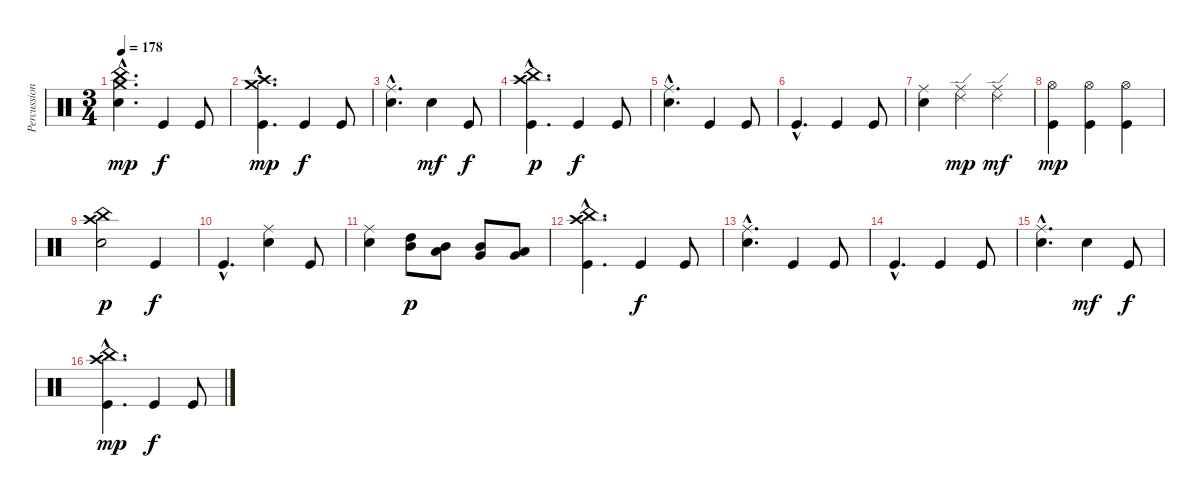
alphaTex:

\track ("Percussions" "Percussion") {instrument percussion}
\staff {score}
\articulation defaults
\ts (3 4)
\tempo 178
\clef neutral
\ks c
("Electric Snare (hit)"{hac} "China (hit)"{hac} "Crash medium (hit)"{hac}).4{d dy mp} "Kick (hit)".4{dy f} "Kick (hit)".8 |
("Kick (hit)"{hac} "Crash medium (hit)"{hac} "Crash high (hit)"{hac}).4{d dy mp} "Kick (hit)".4{dy f} "Kick (hit)".8 |
("Electric Snare (hit)"{hac} "Ride (middle)"{hac}).4{d} "Electric Snare (hit)".4{dy mf} "Kick (hit)".8{dy f} |
("Kick (hit)"{hac} "Crash high (hit)"{hac} "China (hit)"{hac}).4{d dy p} "Kick (hit)".4{dy f} "Kick (hit)".8 |
("Electric Snare (hit)"{hac} "Ride (middle)"{hac}).4{d} "Kick (hit)".4 "Kick (hit)".8 |
"Kick (hit)"{hac}.4{d} "Kick (hit)".4 "Kick (hit)".8 |
("Electric Snare (hit)" "Ride (middle)").4 ("Ride (middle)" "Ride (edge) 2").4{dy mp} ("Ride (middle)" "Ride (edge) 2").4{dy mf} |
("Kick (hit)" "Hi-Hat (open)").4{dy mp} ("Kick (hit)" "Hi-Hat (open)").4 ("Kick (hit)" "Hi-Hat (open)").4 |
("Electric Snare (hit)" "Crash high (hit)" "China (hit)").2{dy p} "Kick (hit)".4{dy f} |
"Kick (hit)"{hac}.4{d} ("Electric Snare (hit)" "Ride (middle)").4 "Kick (hit)".8 |
("Electric Snare (hit)" "Ride (middle)").4 ("Mid Tom (hit)" "High Tom (hit)").8{dy p} ("Low Tom (hit)" "Mid Tom (hit)").8 ("Very Low Tom (hit)" "Mid Tom (hit)").8 ("Very Low Tom (hit)" "Low Tom (hit)").8 |
("Kick (hit)"{hac} "Crash high (hit)"{hac} "China (hit)"{hac}).4{d} "Kick (hit)".4{dy f} "Kick (hit)".8 |
("Electric Snare (hit)"{hac} "Ride (middle)"{hac}).4{d} "Kick (hit)".4 "Kick (hit)".8 |
"Kick (hit)"{hac}.4{d} "Kick (hit)".4 "Kick (hit)".8 |
("Electric Snare (hit)"{hac} "Ride (middle)"{hac}).4{d} "Electric Snare (hit)".4{dy mf} "Kick (hit)".8{dy f} |
("Kick (hit)"{hac} "China (hit)"{hac} "Crash high (hit)"{hac}).4{d dy mp} "Kick (hit)".4{dy f} "Kick (hit)".8
